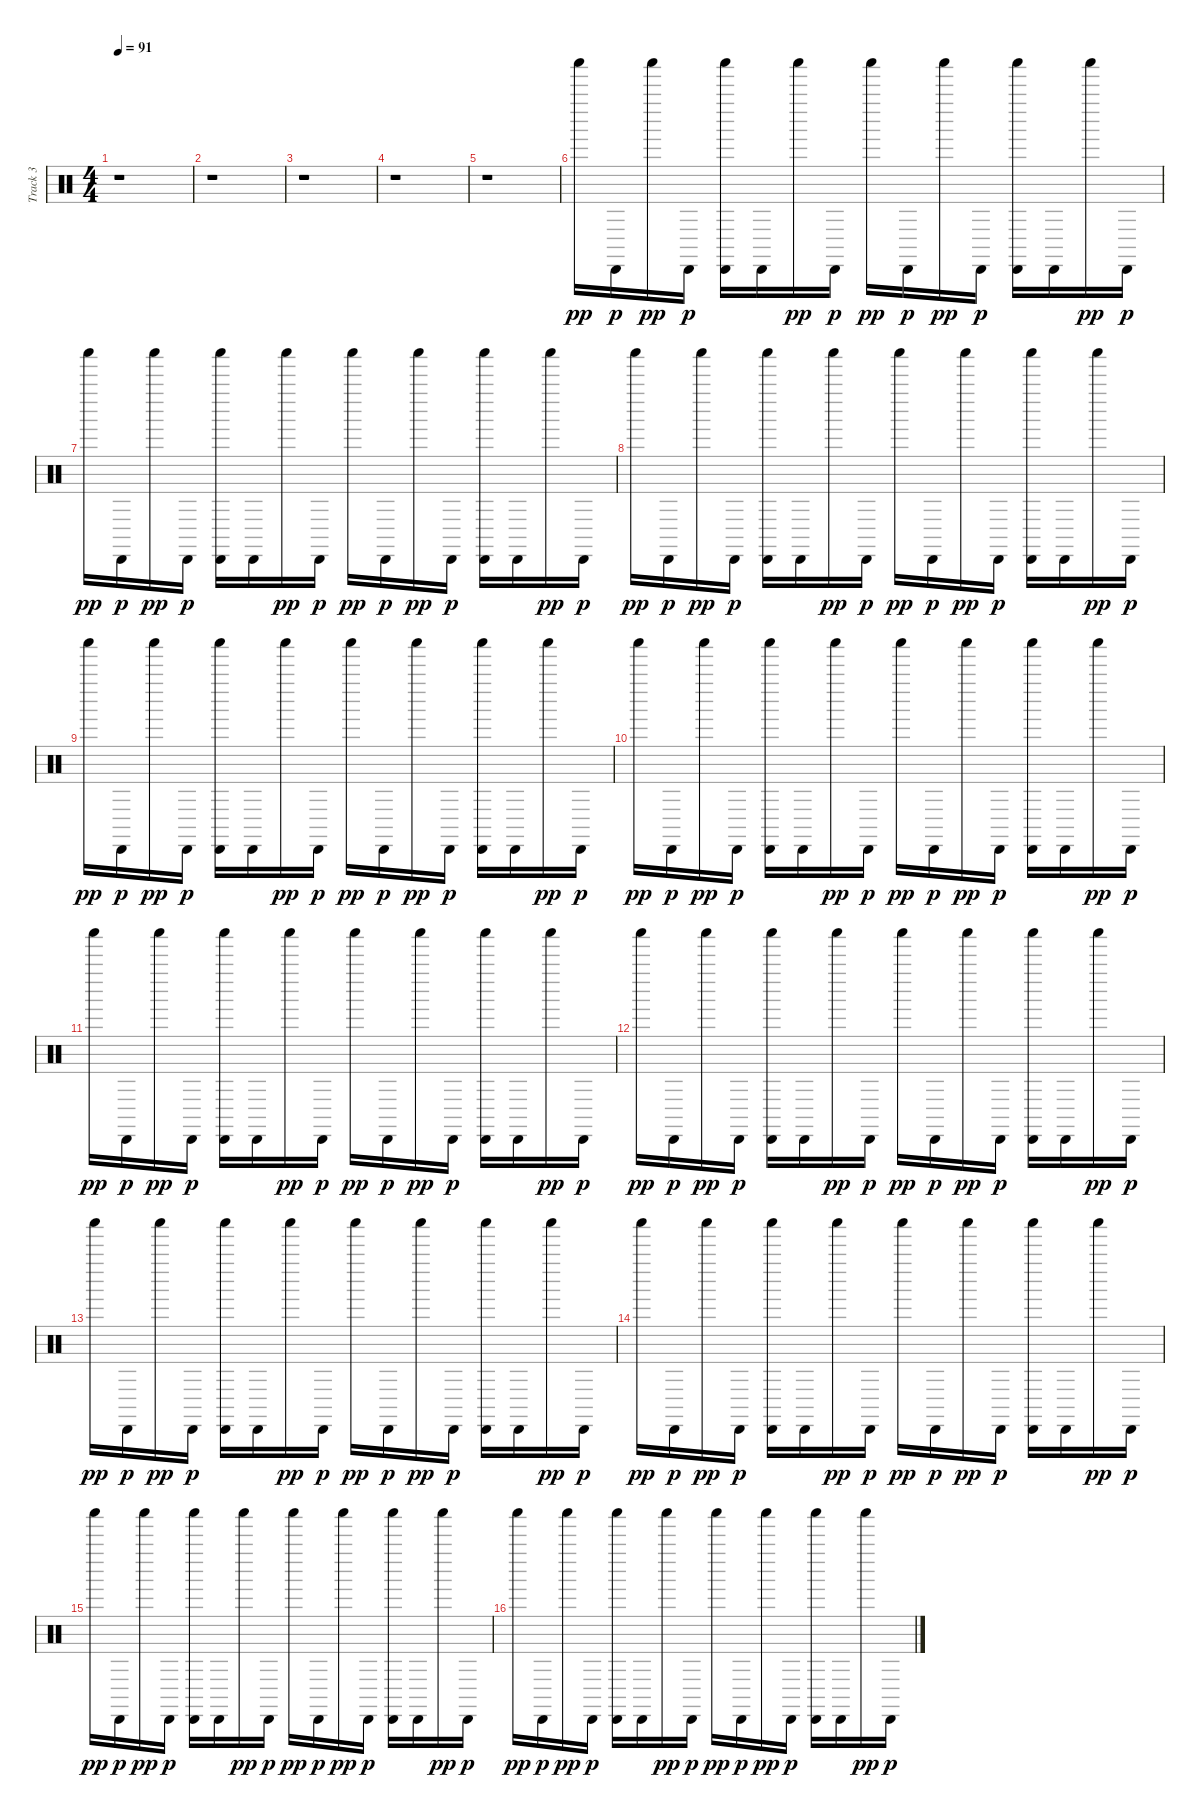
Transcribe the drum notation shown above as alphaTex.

\track ("Track 3" "Track 3") {instrument percussion}
\staff {score}
\articulation defaults
\ts (4 4)
\tempo 91
\clef neutral
\ks c
r.1{dy pp} |
r.1 |
r.1 |
r.1 |
r.1 |
"Shaker (hit)".16 "Cabasa (hit)".16{dy p} "Shaker (hit)".16{dy pp} "Cabasa (hit)".16{dy p} ("Cabasa (hit)" "Shaker (hit)").16 "Cabasa (hit)".16 "Shaker (hit)".16{dy pp} "Cabasa (hit)".16{dy p} "Shaker (hit)".16{dy pp} "Cabasa (hit)".16{dy p} "Shaker (hit)".16{dy pp} "Cabasa (hit)".16{dy p} ("Cabasa (hit)" "Shaker (hit)").16 "Cabasa (hit)".16 "Shaker (hit)".16{dy pp} "Cabasa (hit)".16{dy p} |
"Shaker (hit)".16{dy pp} "Cabasa (hit)".16{dy p} "Shaker (hit)".16{dy pp} "Cabasa (hit)".16{dy p} ("Cabasa (hit)" "Shaker (hit)").16 "Cabasa (hit)".16 "Shaker (hit)".16{dy pp} "Cabasa (hit)".16{dy p} "Shaker (hit)".16{dy pp} "Cabasa (hit)".16{dy p} "Shaker (hit)".16{dy pp} "Cabasa (hit)".16{dy p} ("Cabasa (hit)" "Shaker (hit)").16 "Cabasa (hit)".16 "Shaker (hit)".16{dy pp} "Cabasa (hit)".16{dy p} |
"Shaker (hit)".16{dy pp} "Cabasa (hit)".16{dy p} "Shaker (hit)".16{dy pp} "Cabasa (hit)".16{dy p} ("Cabasa (hit)" "Shaker (hit)").16 "Cabasa (hit)".16 "Shaker (hit)".16{dy pp} "Cabasa (hit)".16{dy p} "Shaker (hit)".16{dy pp} "Cabasa (hit)".16{dy p} "Shaker (hit)".16{dy pp} "Cabasa (hit)".16{dy p} ("Cabasa (hit)" "Shaker (hit)").16 "Cabasa (hit)".16 "Shaker (hit)".16{dy pp} "Cabasa (hit)".16{dy p} |
"Shaker (hit)".16{dy pp} "Cabasa (hit)".16{dy p} "Shaker (hit)".16{dy pp} "Cabasa (hit)".16{dy p} ("Cabasa (hit)" "Shaker (hit)").16 "Cabasa (hit)".16 "Shaker (hit)".16{dy pp} "Cabasa (hit)".16{dy p} "Shaker (hit)".16{dy pp} "Cabasa (hit)".16{dy p} "Shaker (hit)".16{dy pp} "Cabasa (hit)".16{dy p} ("Cabasa (hit)" "Shaker (hit)").16 "Cabasa (hit)".16 "Shaker (hit)".16{dy pp} "Cabasa (hit)".16{dy p} |
"Shaker (hit)".16{dy pp} "Cabasa (hit)".16{dy p} "Shaker (hit)".16{dy pp} "Cabasa (hit)".16{dy p} ("Cabasa (hit)" "Shaker (hit)").16 "Cabasa (hit)".16 "Shaker (hit)".16{dy pp} "Cabasa (hit)".16{dy p} "Shaker (hit)".16{dy pp} "Cabasa (hit)".16{dy p} "Shaker (hit)".16{dy pp} "Cabasa (hit)".16{dy p} ("Cabasa (hit)" "Shaker (hit)").16 "Cabasa (hit)".16 "Shaker (hit)".16{dy pp} "Cabasa (hit)".16{dy p} |
"Shaker (hit)".16{dy pp} "Cabasa (hit)".16{dy p} "Shaker (hit)".16{dy pp} "Cabasa (hit)".16{dy p} ("Cabasa (hit)" "Shaker (hit)").16 "Cabasa (hit)".16 "Shaker (hit)".16{dy pp} "Cabasa (hit)".16{dy p} "Shaker (hit)".16{dy pp} "Cabasa (hit)".16{dy p} "Shaker (hit)".16{dy pp} "Cabasa (hit)".16{dy p} ("Cabasa (hit)" "Shaker (hit)").16 "Cabasa (hit)".16 "Shaker (hit)".16{dy pp} "Cabasa (hit)".16{dy p} |
"Shaker (hit)".16{dy pp} "Cabasa (hit)".16{dy p} "Shaker (hit)".16{dy pp} "Cabasa (hit)".16{dy p} ("Cabasa (hit)" "Shaker (hit)").16 "Cabasa (hit)".16 "Shaker (hit)".16{dy pp} "Cabasa (hit)".16{dy p} "Shaker (hit)".16{dy pp} "Cabasa (hit)".16{dy p} "Shaker (hit)".16{dy pp} "Cabasa (hit)".16{dy p} ("Cabasa (hit)" "Shaker (hit)").16 "Cabasa (hit)".16 "Shaker (hit)".16{dy pp} "Cabasa (hit)".16{dy p} |
"Shaker (hit)".16{dy pp} "Cabasa (hit)".16{dy p} "Shaker (hit)".16{dy pp} "Cabasa (hit)".16{dy p} ("Cabasa (hit)" "Shaker (hit)").16 "Cabasa (hit)".16 "Shaker (hit)".16{dy pp} "Cabasa (hit)".16{dy p} "Shaker (hit)".16{dy pp} "Cabasa (hit)".16{dy p} "Shaker (hit)".16{dy pp} "Cabasa (hit)".16{dy p} ("Cabasa (hit)" "Shaker (hit)").16 "Cabasa (hit)".16 "Shaker (hit)".16{dy pp} "Cabasa (hit)".16{dy p} |
"Shaker (hit)".16{dy pp} "Cabasa (hit)".16{dy p} "Shaker (hit)".16{dy pp} "Cabasa (hit)".16{dy p} ("Cabasa (hit)" "Shaker (hit)").16 "Cabasa (hit)".16 "Shaker (hit)".16{dy pp} "Cabasa (hit)".16{dy p} "Shaker (hit)".16{dy pp} "Cabasa (hit)".16{dy p} "Shaker (hit)".16{dy pp} "Cabasa (hit)".16{dy p} ("Cabasa (hit)" "Shaker (hit)").16 "Cabasa (hit)".16 "Shaker (hit)".16{dy pp} "Cabasa (hit)".16{dy p} |
"Shaker (hit)".16{dy pp} "Cabasa (hit)".16{dy p} "Shaker (hit)".16{dy pp} "Cabasa (hit)".16{dy p} ("Cabasa (hit)" "Shaker (hit)").16 "Cabasa (hit)".16 "Shaker (hit)".16{dy pp} "Cabasa (hit)".16{dy p} "Shaker (hit)".16{dy pp} "Cabasa (hit)".16{dy p} "Shaker (hit)".16{dy pp} "Cabasa (hit)".16{dy p} ("Cabasa (hit)" "Shaker (hit)").16 "Cabasa (hit)".16 "Shaker (hit)".16{dy pp} "Cabasa (hit)".16{dy p} |
"Shaker (hit)".16{dy pp} "Cabasa (hit)".16{dy p} "Shaker (hit)".16{dy pp} "Cabasa (hit)".16{dy p} ("Cabasa (hit)" "Shaker (hit)").16 "Cabasa (hit)".16 "Shaker (hit)".16{dy pp} "Cabasa (hit)".16{dy p} "Shaker (hit)".16{dy pp} "Cabasa (hit)".16{dy p} "Shaker (hit)".16{dy pp} "Cabasa (hit)".16{dy p} ("Cabasa (hit)" "Shaker (hit)").16 "Cabasa (hit)".16 "Shaker (hit)".16{dy pp} "Cabasa (hit)".16{dy p}
